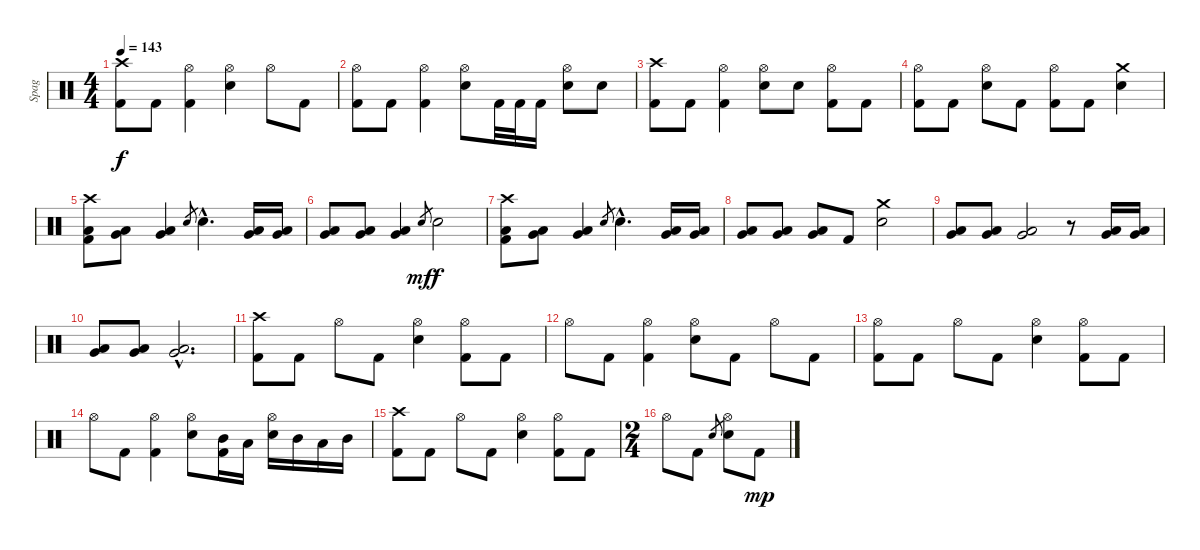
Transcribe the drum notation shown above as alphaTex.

\track ("Spag" "Spag") {instrument percussion}
\staff {score}
\articulation defaults
\ts (4 4)
\tempo 143
\clef neutral
\ks c
("Crash high (hit)" "Kick (hit) 2").8{dy f} "Kick (hit) 2".8 ("Hi-Hat (open)" "Kick (hit) 2").4 ("Hi-Hat (open)" "Electric Snare (hit)").4 "Hi-Hat (open)".8 "Kick (hit) 2".8 |
("Hi-Hat (open)" "Kick (hit) 2").8 "Kick (hit) 2".8 ("Hi-Hat (open)" "Kick (hit) 2").4 ("Hi-Hat (open)" "Electric Snare (hit)").8 "Kick (hit) 2".32 "Kick (hit) 2".32 "Kick (hit) 2".16 ("Hi-Hat (open)" "Electric Snare (hit)").8 "Electric Snare (hit)".8 |
("Crash high (hit)" "Kick (hit) 2").8 "Kick (hit) 2".8 ("Hi-Hat (open)" "Kick (hit) 2").4 ("Hi-Hat (open)" "Electric Snare (hit)").8 "Electric Snare (hit)".8 ("Hi-Hat (open)" "Kick (hit) 2").8 "Kick (hit) 2".8 |
("Hi-Hat (open)" "Kick (hit) 2").8 "Kick (hit) 2".8 ("Hi-Hat (open)" "Electric Snare (hit)").8 "Kick (hit) 2".8 ("Hi-Hat (open)" "Kick (hit) 2").8 "Kick (hit) 2".8 ("Crash medium (hit)" "Electric Snare (hit)").4 |
("Crash high (hit)" "Low Floor Tom (hit)" "Kick (hit) 2").8 ("Very Low Tom (hit)" "Low Floor Tom (hit)").8 ("Very Low Tom (hit)" "Low Floor Tom (hit)").4 "Electric Snare (hit)".8{gr} "Electric Snare (hit)"{hac}.4{d} ("Very Low Tom (hit)" "Low Floor Tom (hit)").16 ("Very Low Tom (hit)" "Low Floor Tom (hit)").16 |
("Very Low Tom (hit)" "Low Floor Tom (hit)").8 ("Very Low Tom (hit)" "Low Floor Tom (hit)").8 ("Very Low Tom (hit)" "Low Floor Tom (hit)").4 "Electric Snare (hit)".8{gr dy mf} "Electric Snare (hit)".2{dy f} |
("Crash high (hit)" "Low Floor Tom (hit)" "Kick (hit) 2").8 ("Very Low Tom (hit)" "Low Floor Tom (hit)").8 ("Very Low Tom (hit)" "Low Floor Tom (hit)").4 "Electric Snare (hit)".8{gr} "Electric Snare (hit)"{hac}.4{d} ("Very Low Tom (hit)" "Low Floor Tom (hit)").16 ("Very Low Tom (hit)" "Low Floor Tom (hit)").16 |
("Very Low Tom (hit)" "Low Floor Tom (hit)").8 ("Very Low Tom (hit)" "Low Floor Tom (hit)").8 ("Very Low Tom (hit)" "Low Floor Tom (hit)").8 "Kick (hit) 2".8 ("Crash medium (hit)" "Electric Snare (hit)").2 |
("Very Low Tom (hit)" "Low Floor Tom (hit)").8 ("Very Low Tom (hit)" "Low Floor Tom (hit)").8 ("Very Low Tom (hit)" "Low Floor Tom (hit)").2 r.8 ("Very Low Tom (hit)" "Low Floor Tom (hit)").16 ("Very Low Tom (hit)" "Low Floor Tom (hit)").16 |
("Very Low Tom (hit)" "Low Floor Tom (hit)").8 ("Very Low Tom (hit)" "Low Floor Tom (hit)").8 ("Very Low Tom (hit)"{hac} "Low Floor Tom (hit)"{hac}).2{d} |
("Crash high (hit)" "Kick (hit) 2").8 "Kick (hit) 2".8 "Hi-Hat (open)".8 "Kick (hit) 2".8 ("Hi-Hat (open)" "Electric Snare (hit)").4 ("Hi-Hat (open)" "Kick (hit) 2").8 "Kick (hit) 2".8 |
"Hi-Hat (open)".8 "Kick (hit) 2".8 ("Hi-Hat (open)" "Kick (hit) 2").4 ("Hi-Hat (open)" "Electric Snare (hit)").8 "Kick (hit) 2".8 "Hi-Hat (open)".8 "Kick (hit) 2".8 |
("Hi-Hat (open)" "Kick (hit) 2").8 "Kick (hit) 2".8 "Hi-Hat (open)".8 "Kick (hit) 2".8 ("Hi-Hat (open)" "Electric Snare (hit)").4 ("Hi-Hat (open)" "Kick (hit) 2").8 "Kick (hit) 2".8 |
"Hi-Hat (open)".8 "Kick (hit) 2".8 ("Hi-Hat (open)" "Kick (hit) 2").4 ("Hi-Hat (open)" "Electric Snare (hit)").8 ("Mid Tom (hit)" "Kick (hit) 2").16 "Low Tom (hit)".16 ("Hi-Hat (open)" "Electric Snare (hit)").16 "Mid Tom (hit)".16 "Low Tom (hit)".16 "Mid Tom (hit)".16 |
("Crash high (hit)" "Kick (hit) 2").8 "Kick (hit) 2".8 "Hi-Hat (open)".8 "Kick (hit) 2".8 ("Hi-Hat (open)" "Electric Snare (hit)").4 ("Hi-Hat (open)" "Kick (hit) 2").8 "Kick (hit) 2".8 |
\ts (2 4)
"Hi-Hat (open)".8 "Kick (hit) 2".8 "Electric Snare (hit)".8{gr} ("Hi-Hat (open)" "Electric Snare (hit)").8 "Kick (hit) 2".8{dy mp}
